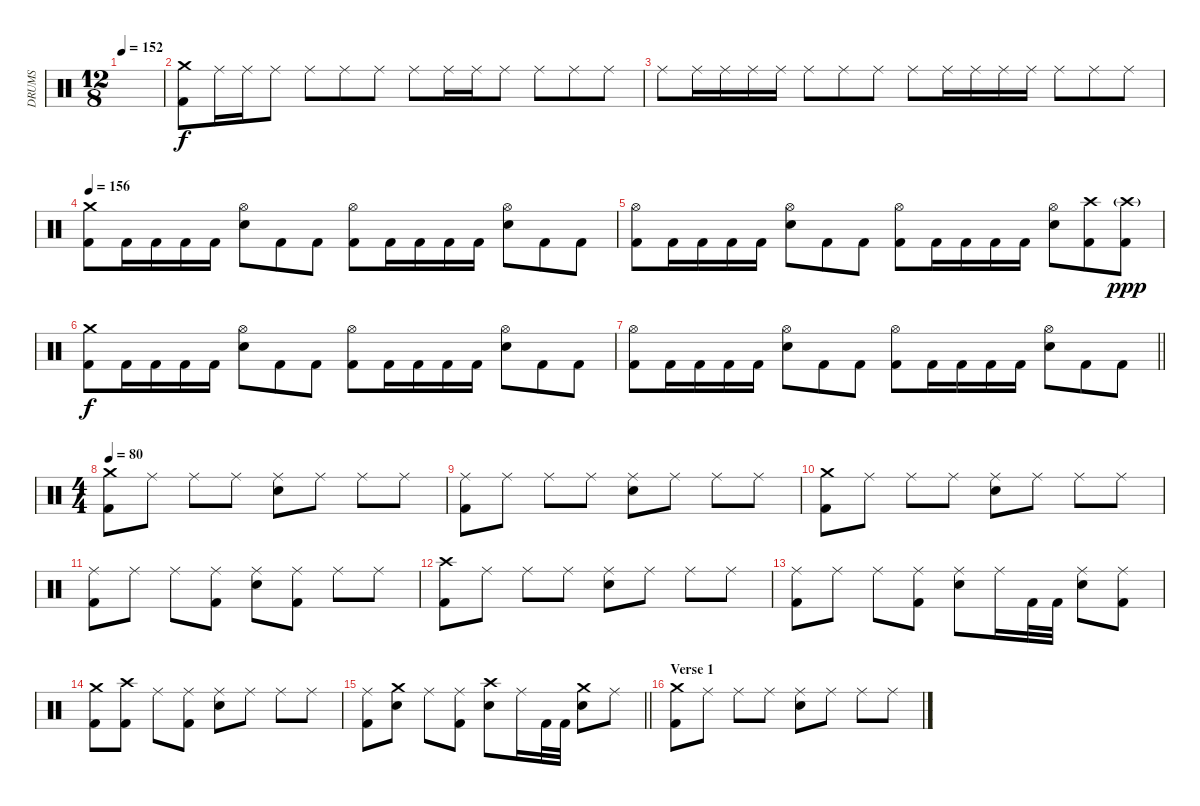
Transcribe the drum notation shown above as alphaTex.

\track ("DRUMS" "DRUMS") {instrument percussion}
\staff {score}
\articulation defaults
\ts (12 8)
\tempo 152
\clef neutral
\ks c
|
("Crash medium (hit)" "Kick (hit) 2").8 "Ride (middle)".16 "Ride (middle)".16 "Ride (middle)".8 "Ride (middle)".8 "Ride (middle)".8 "Ride (middle)".8 "Ride (middle)".8 "Ride (middle)".16 "Ride (middle)".16 "Ride (middle)".8 "Ride (middle)".8 "Ride (middle)".8 "Ride (middle)".8 |
"Ride (middle)".8 "Ride (middle)".16 "Ride (middle)".16 "Ride (middle)".16 "Ride (middle)".16 "Ride (middle)".8 "Ride (middle)".8 "Ride (middle)".8 "Ride (middle)".8 "Ride (middle)".16 "Ride (middle)".16 "Ride (middle)".16 "Ride (middle)".16 "Ride (middle)".8 "Ride (middle)".8 "Ride (middle)".8 |
\tempo 156
("Crash medium (hit)" "Kick (hit) 2").8 "Kick (hit) 2".16 "Kick (hit) 2".16 "Kick (hit) 2".16 "Kick (hit) 2".16 ("Hi-Hat (open)" "Snare (hit) 2").8 "Kick (hit) 2".8 "Kick (hit) 2".8 ("Hi-Hat (open)" "Kick (hit) 2").8 "Kick (hit) 2".16 "Kick (hit) 2".16 "Kick (hit) 2".16 "Kick (hit) 2".16 ("Hi-Hat (open)" "Snare (hit) 2").8 "Kick (hit) 2".8 "Kick (hit) 2".8 |
("Hi-Hat (open)" "Kick (hit) 2").8 "Kick (hit) 2".16 "Kick (hit) 2".16 "Kick (hit) 2".16 "Kick (hit) 2".16 ("Hi-Hat (open)" "Snare (hit) 2").8 "Kick (hit) 2".8 "Kick (hit) 2".8 ("Hi-Hat (open)" "Kick (hit) 2").8 "Kick (hit) 2".16 "Kick (hit) 2".16 "Kick (hit) 2".16 "Kick (hit) 2".16 ("Hi-Hat (open)" "Snare (hit) 2").8 ("Crash high (hit)" "Kick (hit) 2").8 ("Crash high (hit)"{g} "Kick (hit) 2").8{dy ppp} |
("Crash medium (hit)" "Kick (hit) 2").8{dy f} "Kick (hit) 2".16 "Kick (hit) 2".16 "Kick (hit) 2".16 "Kick (hit) 2".16 ("Hi-Hat (open)" "Snare (hit) 2").8 "Kick (hit) 2".8 "Kick (hit) 2".8 ("Hi-Hat (open)" "Kick (hit) 2").8 "Kick (hit) 2".16 "Kick (hit) 2".16 "Kick (hit) 2".16 "Kick (hit) 2".16 ("Hi-Hat (open)" "Snare (hit) 2").8 "Kick (hit) 2".8 "Kick (hit) 2".8 |
\barLineRight lightlight
("Hi-Hat (open)" "Kick (hit) 2").8 "Kick (hit) 2".16 "Kick (hit) 2".16 "Kick (hit) 2".16 "Kick (hit) 2".16 ("Hi-Hat (open)" "Snare (hit) 2").8 "Kick (hit) 2".8 "Kick (hit) 2".8 ("Hi-Hat (open)" "Kick (hit) 2").8 "Kick (hit) 2".16 "Kick (hit) 2".16 "Kick (hit) 2".16 "Kick (hit) 2".16 ("Hi-Hat (open)" "Snare (hit) 2").8 "Kick (hit) 2".8 "Kick (hit) 2".8 |
\ts (4 4)
\tempo 80
("Crash medium (hit)" "Kick (hit) 2").8 "Ride (middle)".8 "Ride (middle)".8 "Ride (middle)".8 ("Ride (middle)" "Snare (hit) 2").8 "Ride (middle)".8 "Ride (middle)".8 "Ride (middle)".8 |
("Ride (middle)" "Kick (hit) 2").8 "Ride (middle)".8 "Ride (middle)".8 "Ride (middle)".8 ("Ride (middle)" "Snare (hit) 2").8 "Ride (middle)".8 "Ride (middle)".8 "Ride (middle)".8 |
("Crash medium (hit)" "Kick (hit) 2").8 "Ride (middle)".8 "Ride (middle)".8 "Ride (middle)".8 ("Ride (middle)" "Snare (hit) 2").8 "Ride (middle)".8 "Ride (middle)".8 "Ride (middle)".8 |
("Ride (middle)" "Kick (hit) 2").8 "Ride (middle)".8 "Ride (middle)".8 ("Ride (middle)" "Kick (hit) 2").8 ("Ride (middle)" "Snare (hit) 2").8 ("Ride (middle)" "Kick (hit) 2").8 "Ride (middle)".8 "Ride (middle)".8 |
("Crash high (hit)" "Kick (hit) 2").8 "Ride (middle)".8 "Ride (middle)".8 "Ride (middle)".8 ("Ride (middle)" "Snare (hit) 2").8 "Ride (middle)".8 "Ride (middle)".8 "Ride (middle)".8 |
("Ride (middle)" "Kick (hit) 2").8 "Ride (middle)".8 "Ride (middle)".8 ("Ride (middle)" "Kick (hit) 2").8 ("Ride (middle)" "Snare (hit) 2").8 "Ride (middle)".16 "Kick (hit) 2".32 "Kick (hit) 2".32 ("Ride (middle)" "Snare (hit) 2").8 ("Ride (middle)" "Kick (hit) 2").8 |
("Crash medium (hit)" "Kick (hit) 2").8 ("Crash high (hit)" "Kick (hit) 2").8 "Ride (middle)".8 ("Ride (middle)" "Kick (hit) 2").8 ("Ride (middle)" "Snare (hit) 2").8 "Ride (middle)".8 "Ride (middle)".8 "Ride (middle)".8 |
\barLineRight lightlight
("Ride (middle)" "Kick (hit) 2").8 ("Crash medium (hit)" "Snare (hit) 2").8 "Ride (middle)".8 ("Ride (middle)" "Kick (hit) 2").8 ("Crash high (hit)" "Snare (hit) 2").8 "Ride (middle)".16 "Kick (hit) 2".32 "Kick (hit) 2".32 ("Crash medium (hit)" "Snare (hit) 2").8 "Ride (middle)".8 |
\section ("" "Verse 1")
("Crash medium (hit)" "Kick (hit) 2").8 "Ride (middle)".8 "Ride (middle)".8 "Ride (middle)".8 ("Ride (middle)" "Snare (hit) 2").8 "Ride (middle)".8 "Ride (middle)".8 "Ride (middle)".8
